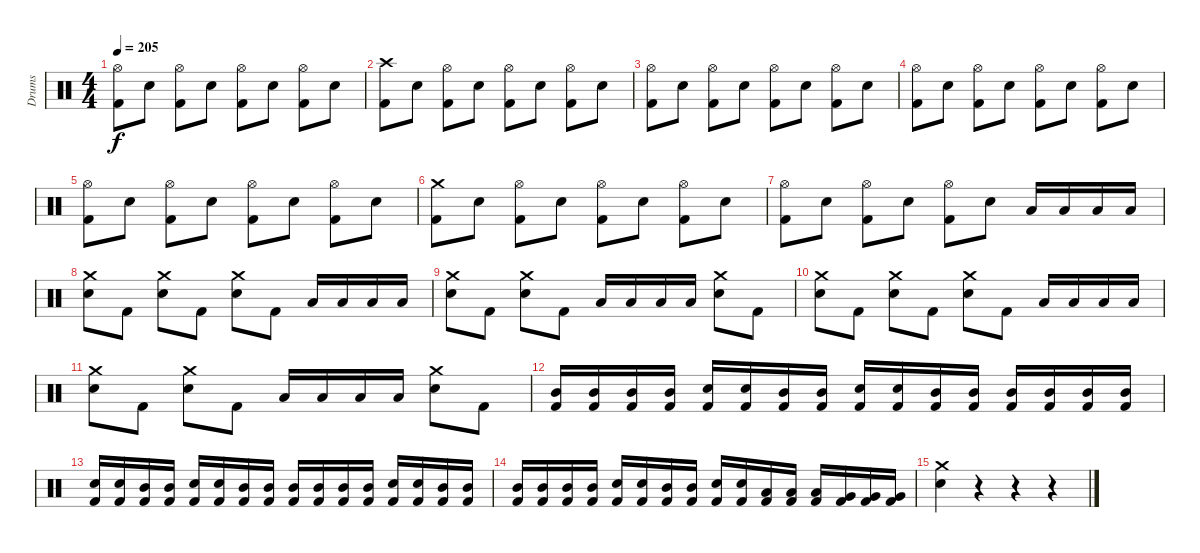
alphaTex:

\track ("Drums" "Drums") {instrument percussion}
\staff {score}
\articulation defaults
\ts (4 4)
\tempo 205
\clef neutral
\ks c
("Hi-Hat (open)" "Kick (hit) 2").8{dy f} "Electric Snare (hit)".8 ("Hi-Hat (open)" "Kick (hit) 2").8 "Electric Snare (hit)".8 ("Hi-Hat (open)" "Kick (hit) 2").8 "Electric Snare (hit)".8 ("Hi-Hat (open)" "Kick (hit) 2").8 "Electric Snare (hit)".8 |
("Crash high (hit)" "Kick (hit) 2").8 "Electric Snare (hit)".8 ("Hi-Hat (open)" "Kick (hit) 2").8 "Electric Snare (hit)".8 ("Hi-Hat (open)" "Kick (hit) 2").8 "Electric Snare (hit)".8 ("Hi-Hat (open)" "Kick (hit) 2").8 "Electric Snare (hit)".8 |
("Hi-Hat (open)" "Kick (hit) 2").8 "Electric Snare (hit)".8 ("Hi-Hat (open)" "Kick (hit) 2").8 "Electric Snare (hit)".8 ("Hi-Hat (open)" "Kick (hit) 2").8 "Electric Snare (hit)".8 ("Hi-Hat (open)" "Kick (hit) 2").8 "Electric Snare (hit)".8 |
("Hi-Hat (open)" "Kick (hit) 2").8 "Electric Snare (hit)".8 ("Hi-Hat (open)" "Kick (hit) 2").8 "Electric Snare (hit)".8 ("Hi-Hat (open)" "Kick (hit) 2").8 "Electric Snare (hit)".8 ("Hi-Hat (open)" "Kick (hit) 2").8 "Electric Snare (hit)".8 |
("Hi-Hat (open)" "Kick (hit) 2").8 "Electric Snare (hit)".8 ("Hi-Hat (open)" "Kick (hit) 2").8 "Electric Snare (hit)".8 ("Hi-Hat (open)" "Kick (hit) 2").8 "Electric Snare (hit)".8 ("Hi-Hat (open)" "Kick (hit) 2").8 "Electric Snare (hit)".8 |
("Crash medium (hit)" "Kick (hit) 2").8 "Electric Snare (hit)".8 ("Hi-Hat (open)" "Kick (hit) 2").8 "Electric Snare (hit)".8 ("Hi-Hat (open)" "Kick (hit) 2").8 "Electric Snare (hit)".8 ("Hi-Hat (open)" "Kick (hit) 2").8 "Electric Snare (hit)".8 |
("Hi-Hat (open)" "Kick (hit) 2").8 "Electric Snare (hit)".8 ("Hi-Hat (open)" "Kick (hit) 2").8 "Electric Snare (hit)".8 ("Hi-Hat (open)" "Kick (hit) 2").8 "Electric Snare (hit)".8 "Low Tom (hit)".16 "Low Tom (hit)".16 "Low Tom (hit)".16 "Low Tom (hit)".16 |
("Crash medium (hit)" "Electric Snare (hit)").8 "Kick (hit) 2".8 ("Crash medium (hit)" "Electric Snare (hit)").8 "Kick (hit) 2".8 ("Crash medium (hit)" "Electric Snare (hit)").8 "Kick (hit) 2".8 "Low Tom (hit)".16 "Low Tom (hit)".16 "Low Tom (hit)".16 "Low Tom (hit)".16 |
("Crash medium (hit)" "Electric Snare (hit)").8 "Kick (hit) 2".8 ("Crash medium (hit)" "Electric Snare (hit)").8 "Kick (hit) 2".8 "Low Tom (hit)".16 "Low Tom (hit)".16 "Low Tom (hit)".16 "Low Tom (hit)".16 ("Crash medium (hit)" "Electric Snare (hit)").8 "Kick (hit) 2".8 |
("Crash medium (hit)" "Electric Snare (hit)").8 "Kick (hit) 2".8 ("Crash medium (hit)" "Electric Snare (hit)").8 "Kick (hit) 2".8 ("Crash medium (hit)" "Electric Snare (hit)").8 "Kick (hit) 2".8 "Low Tom (hit)".16 "Low Tom (hit)".16 "Low Tom (hit)".16 "Low Tom (hit)".16 |
("Crash medium (hit)" "Electric Snare (hit)").8 "Kick (hit) 2".8 ("Crash medium (hit)" "Electric Snare (hit)").8 "Kick (hit) 2".8 "Low Tom (hit)".16 "Low Tom (hit)".16 "Low Tom (hit)".16 "Low Tom (hit)".16 ("Crash medium (hit)" "Electric Snare (hit)").8 "Kick (hit) 2".8 |
("Mid Tom (hit)" "Kick (hit) 2").16 ("Mid Tom (hit)" "Kick (hit) 2").16 ("Mid Tom (hit)" "Kick (hit) 2").16 ("Mid Tom (hit)" "Kick (hit) 2").16 ("Electric Snare (hit)" "Kick (hit) 2").16 ("Electric Snare (hit)" "Kick (hit) 2").16 ("Mid Tom (hit)" "Kick (hit) 2").16 ("Mid Tom (hit)" "Kick (hit) 2").16 ("Electric Snare (hit)" "Kick (hit) 2").16 ("Electric Snare (hit)" "Kick (hit) 2").16 ("Mid Tom (hit)" "Kick (hit) 2").16 ("Mid Tom (hit)" "Kick (hit) 2").16 ("Mid Tom (hit)" "Kick (hit) 2").16 ("Mid Tom (hit)" "Kick (hit) 2").16 ("Mid Tom (hit)" "Kick (hit) 2").16 ("Mid Tom (hit)" "Kick (hit) 2").16 |
("Electric Snare (hit)" "Kick (hit) 2").16 ("Electric Snare (hit)" "Kick (hit) 2").16 ("Mid Tom (hit)" "Kick (hit) 2").16 ("Mid Tom (hit)" "Kick (hit) 2").16 ("Electric Snare (hit)" "Kick (hit) 2").16 ("Electric Snare (hit)" "Kick (hit) 2").16 ("Mid Tom (hit)" "Kick (hit) 2").16 ("Mid Tom (hit)" "Kick (hit) 2").16 ("Mid Tom (hit)" "Kick (hit) 2").16 ("Mid Tom (hit)" "Kick (hit) 2").16 ("Mid Tom (hit)" "Kick (hit) 2").16 ("Mid Tom (hit)" "Kick (hit) 2").16 ("Electric Snare (hit)" "Kick (hit) 2").16 ("Electric Snare (hit)" "Kick (hit) 2").16 ("Mid Tom (hit)" "Kick (hit) 2").16 ("Mid Tom (hit)" "Kick (hit) 2").16 |
("Mid Tom (hit)" "Kick (hit) 2").16 ("Mid Tom (hit)" "Kick (hit) 2").16 ("Mid Tom (hit)" "Kick (hit) 2").16 ("Mid Tom (hit)" "Kick (hit) 2").16 ("Electric Snare (hit)" "Kick (hit) 2").16 ("Electric Snare (hit)" "Kick (hit) 2").16 ("Mid Tom (hit)" "Kick (hit) 2").16 ("Mid Tom (hit)" "Kick (hit) 2").16 ("Electric Snare (hit)" "Kick (hit) 2").16 ("Electric Snare (hit)" "Kick (hit) 2").16 ("Low Tom (hit)" "Kick (hit) 2").16 ("Low Tom (hit)" "Kick (hit) 2").16 ("Low Tom (hit)" "Kick (hit) 2").16 ("Very Low Tom (hit)" "Kick (hit) 2").16 ("Very Low Tom (hit)" "Kick (hit) 2").16 ("Very Low Tom (hit)" "Kick (hit) 2").16 |
("Crash medium (hit)" "Electric Snare (hit)").4 r.4 r.4 r.4
